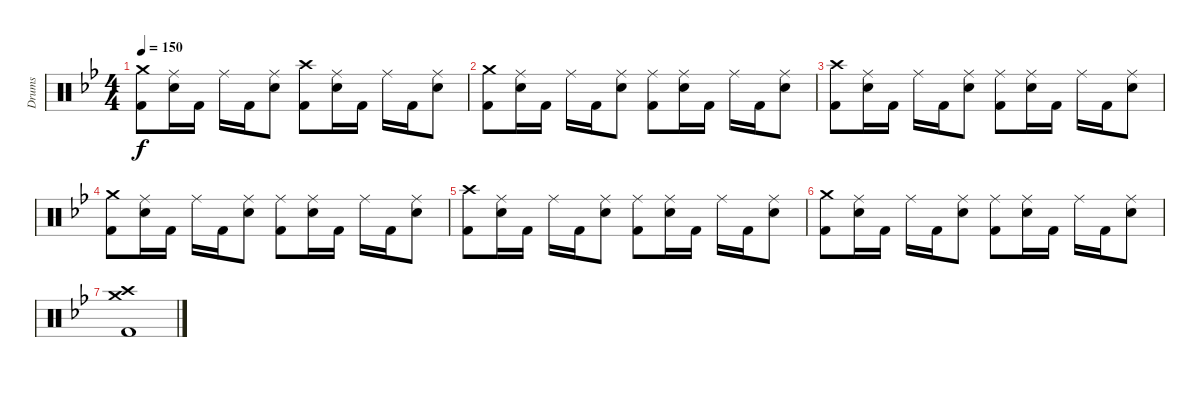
\track ("Drums" "Drums") {instrument percussion}
\staff {score}
\articulation defaults
\ts (4 4)
\tempo 150
\clef neutral
\ks bb
("Crash medium (hit)" "Kick (hit) 2").8{dy f} ("Ride (middle)" "Snare (hit) 2").16 "Kick (hit) 2".16 "Ride (middle)".16 "Kick (hit) 2".16 ("Ride (middle)" "Snare (hit) 2").8 ("Crash high (hit)" "Kick (hit) 2").8 ("Ride (middle)" "Snare (hit) 2").16 "Kick (hit) 2".16 "Ride (middle)".16 "Kick (hit) 2".16 ("Ride (middle)" "Snare (hit) 2").8 |
("Crash medium (hit)" "Kick (hit) 2").8 ("Ride (middle)" "Snare (hit) 2").16 "Kick (hit) 2".16 "Ride (middle)".16 "Kick (hit) 2".16 ("Ride (middle)" "Snare (hit) 2").8 ("Ride (middle)" "Kick (hit) 2").8 ("Ride (middle)" "Snare (hit) 2").16 "Kick (hit) 2".16 "Ride (middle)".16 "Kick (hit) 2".16 ("Ride (middle)" "Snare (hit) 2").8 |
("Crash high (hit)" "Kick (hit) 2").8 ("Ride (middle)" "Snare (hit) 2").16 "Kick (hit) 2".16 "Ride (middle)".16 "Kick (hit) 2".16 ("Ride (middle)" "Snare (hit) 2").8 ("Ride (middle)" "Kick (hit) 2").8 ("Ride (middle)" "Snare (hit) 2").16 "Kick (hit) 2".16 "Ride (middle)".16 "Kick (hit) 2".16 ("Ride (middle)" "Snare (hit) 2").8 |
("Crash medium (hit)" "Kick (hit) 2").8 ("Ride (middle)" "Snare (hit) 2").16 "Kick (hit) 2".16 "Ride (middle)".16 "Kick (hit) 2".16 ("Ride (middle)" "Snare (hit) 2").8 ("Ride (middle)" "Kick (hit) 2").8 ("Ride (middle)" "Snare (hit) 2").16 "Kick (hit) 2".16 "Ride (middle)".16 "Kick (hit) 2".16 ("Ride (middle)" "Snare (hit) 2").8 |
("Crash high (hit)" "Kick (hit) 2").8 ("Ride (middle)" "Snare (hit) 2").16 "Kick (hit) 2".16 "Ride (middle)".16 "Kick (hit) 2".16 ("Ride (middle)" "Snare (hit) 2").8 ("Ride (middle)" "Kick (hit) 2").8 ("Ride (middle)" "Snare (hit) 2").16 "Kick (hit) 2".16 "Ride (middle)".16 "Kick (hit) 2".16 ("Ride (middle)" "Snare (hit) 2").8 |
("Crash medium (hit)" "Kick (hit) 2").8 ("Ride (middle)" "Snare (hit) 2").16 "Kick (hit) 2".16 "Ride (middle)".16 "Kick (hit) 2".16 ("Ride (middle)" "Snare (hit) 2").8 ("Ride (middle)" "Kick (hit) 2").8 ("Ride (middle)" "Snare (hit) 2").16 "Kick (hit) 2".16 "Ride (middle)".16 "Kick (hit) 2".16 ("Ride (middle)" "Snare (hit) 2").8 |
("Crash high (hit)" "Crash medium (hit)" "Kick (hit) 2").1
